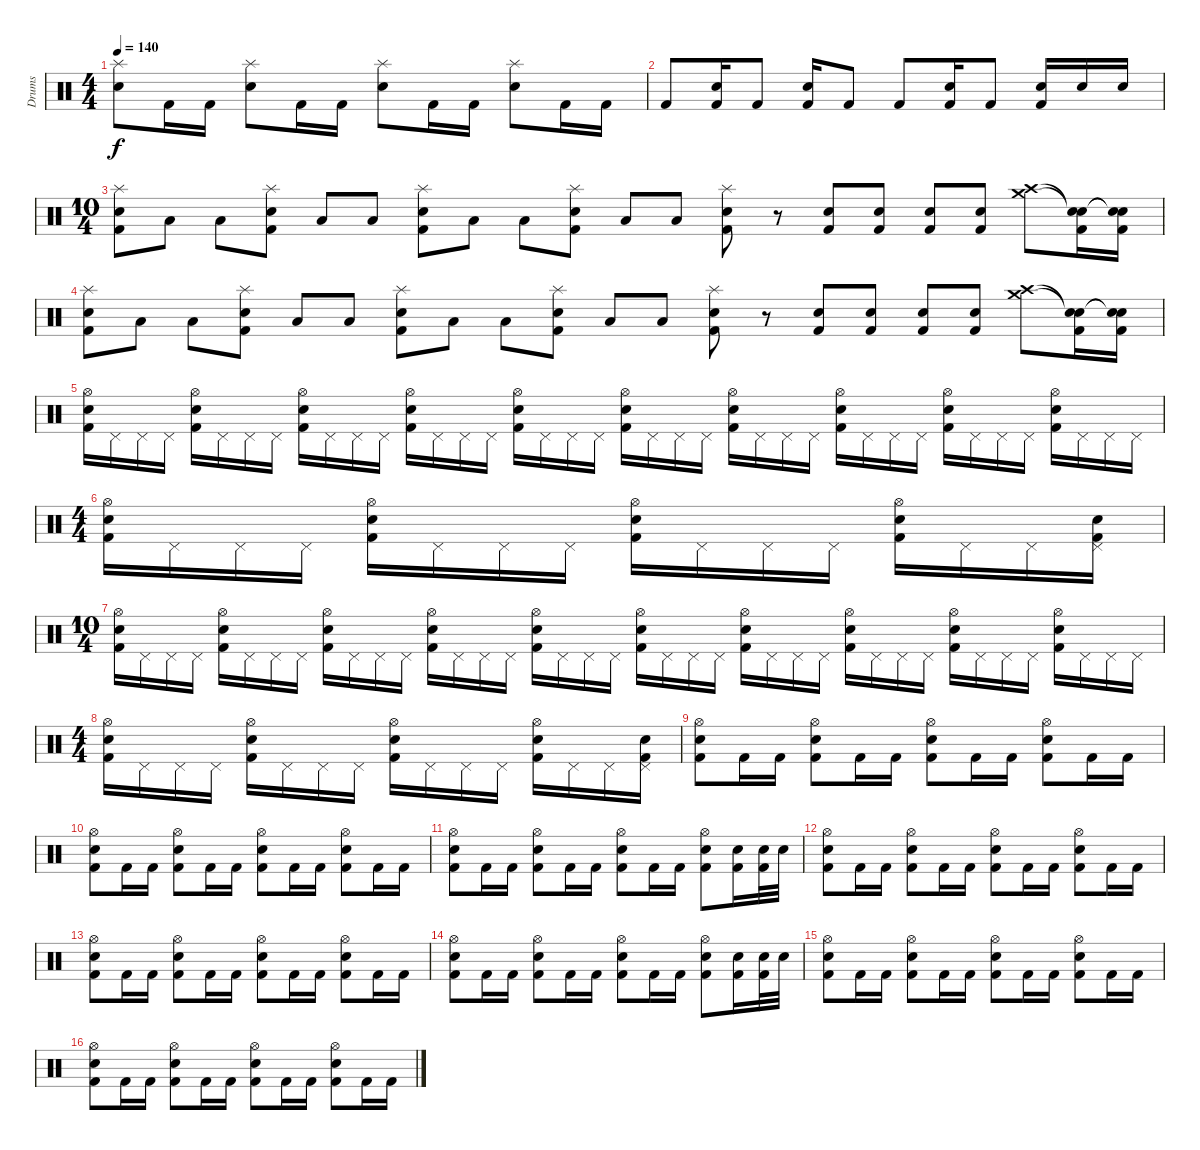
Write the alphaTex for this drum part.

\track ("Drums" "Drums") {instrument percussion}
\staff {score}
\articulation defaults
\ts (4 4)
\tempo 140
\clef neutral
\ks c
("Splash (hit)" "Snare (hit) 2").8{dy f} "Kick (hit) 2".16 "Kick (hit) 2".16 ("Splash (hit)" "Snare (hit) 2").8 "Kick (hit) 2".16 "Kick (hit) 2".16 ("Splash (hit)" "Snare (hit) 2").8 "Kick (hit) 2".16 "Kick (hit) 2".16 ("Splash (hit)" "Snare (hit) 2").8 "Kick (hit) 2".16 "Kick (hit) 2".16 |
"Kick (hit) 2".8 ("Snare (hit) 2" "Kick (hit) 2").16 "Kick (hit) 2".8 ("Snare (hit) 2" "Kick (hit) 2").16 "Kick (hit) 2".8 "Kick (hit) 2".8 ("Snare (hit) 2" "Kick (hit) 2").16 "Kick (hit) 2".8 ("Snare (hit) 2" "Kick (hit) 2").16 "Snare (hit) 2".16 "Snare (hit) 2".16 |
\ts (10 4)
("Splash (hit)" "Snare (hit) 2" "Kick (hit) 2").8 "Low Floor Tom (hit)".8 "Low Tom (hit)".8 ("Splash (hit)" "Snare (hit) 2" "Kick (hit) 2").8 "Low Floor Tom (hit)".8 "Low Tom (hit)".8 ("Splash (hit)" "Snare (hit) 2" "Kick (hit) 2").8 "Low Floor Tom (hit)".8 "Low Tom (hit)".8 ("Splash (hit)" "Snare (hit) 2" "Kick (hit) 2").8 "Low Floor Tom (hit)".8 "Low Tom (hit)".8 ("Splash (hit)" "Snare (hit) 2" "Kick (hit) 2").8 r.8 ("Snare (hit) 2" "Kick (hit) 2").8 ("Snare (hit) 2" "Kick (hit) 2").8 ("Snare (hit) 2" "Kick (hit) 2").8 ("Snare (hit) 2" "Kick (hit) 2").8 ("Crash medium (hit)" "Crash high (hit)").8 ("Snare (hit)"{t} "Snare (hit)"{t} "Kick (hit) 2").16 ("Snare (hit)"{t} "Snare (hit)"{t} "Kick (hit) 2").16 |
("Splash (hit)" "Snare (hit) 2" "Kick (hit) 2").8 "Low Floor Tom (hit)".8 "Low Tom (hit)".8 ("Splash (hit)" "Snare (hit) 2" "Kick (hit) 2").8 "Low Floor Tom (hit)".8 "Low Tom (hit)".8 ("Splash (hit)" "Snare (hit) 2" "Kick (hit) 2").8 "Low Floor Tom (hit)".8 "Low Tom (hit)".8 ("Splash (hit)" "Snare (hit) 2" "Kick (hit) 2").8 "Low Floor Tom (hit)".8 "Low Tom (hit)".8 ("Splash (hit)" "Snare (hit) 2" "Kick (hit) 2").8 r.8 ("Snare (hit) 2" "Kick (hit) 2").8 ("Snare (hit) 2" "Kick (hit) 2").8 ("Snare (hit) 2" "Kick (hit) 2").8 ("Snare (hit) 2" "Kick (hit) 2").8 ("Crash medium (hit)" "Crash high (hit)").8 ("Snare (hit)"{t} "Snare (hit)"{t} "Kick (hit) 2").16 ("Snare (hit)"{t} "Snare (hit)"{t} "Kick (hit) 2").16 |
("Hi-Hat (open)" "Snare (hit) 2" "Kick (hit) 2").16 "Pedal Hi-Hat (hit)".16 "Pedal Hi-Hat (hit)".16 "Pedal Hi-Hat (hit)".16 ("Hi-Hat (open)" "Snare (hit) 2" "Kick (hit) 2").16 "Pedal Hi-Hat (hit)".16 "Pedal Hi-Hat (hit)".16 "Pedal Hi-Hat (hit)".16 ("Hi-Hat (open)" "Snare (hit) 2" "Kick (hit) 2").16 "Pedal Hi-Hat (hit)".16 "Pedal Hi-Hat (hit)".16 "Pedal Hi-Hat (hit)".16 ("Hi-Hat (open)" "Snare (hit) 2" "Kick (hit) 2").16 "Pedal Hi-Hat (hit)".16 "Pedal Hi-Hat (hit)".16 "Pedal Hi-Hat (hit)".16 ("Hi-Hat (open)" "Snare (hit) 2" "Kick (hit) 2").16 "Pedal Hi-Hat (hit)".16 "Pedal Hi-Hat (hit)".16 "Pedal Hi-Hat (hit)".16 ("Hi-Hat (open)" "Snare (hit) 2" "Kick (hit) 2").16 "Pedal Hi-Hat (hit)".16 "Pedal Hi-Hat (hit)".16 "Pedal Hi-Hat (hit)".16 ("Hi-Hat (open)" "Snare (hit) 2" "Kick (hit) 2").16 "Pedal Hi-Hat (hit)".16 "Pedal Hi-Hat (hit)".16 "Pedal Hi-Hat (hit)".16 ("Hi-Hat (open)" "Snare (hit) 2" "Kick (hit) 2").16 "Pedal Hi-Hat (hit)".16 "Pedal Hi-Hat (hit)".16 "Pedal Hi-Hat (hit)".16 ("Hi-Hat (open)" "Snare (hit) 2" "Kick (hit) 2").16 "Pedal Hi-Hat (hit)".16 "Pedal Hi-Hat (hit)".16 "Pedal Hi-Hat (hit)".16 ("Hi-Hat (open)" "Snare (hit) 2" "Kick (hit) 2").16 "Pedal Hi-Hat (hit)".16 "Pedal Hi-Hat (hit)".16 "Pedal Hi-Hat (hit)".16 |
\ts (4 4)
("Hi-Hat (open)" "Snare (hit) 2" "Kick (hit) 2").16 "Pedal Hi-Hat (hit)".16 "Pedal Hi-Hat (hit)".16 "Pedal Hi-Hat (hit)".16 ("Hi-Hat (open)" "Snare (hit) 2" "Kick (hit) 2").16 "Pedal Hi-Hat (hit)".16 "Pedal Hi-Hat (hit)".16 "Pedal Hi-Hat (hit)".16 ("Hi-Hat (open)" "Snare (hit) 2" "Kick (hit) 2").16 "Pedal Hi-Hat (hit)".16 "Pedal Hi-Hat (hit)".16 "Pedal Hi-Hat (hit)".16 ("Hi-Hat (open)" "Snare (hit) 2" "Kick (hit) 2").16 "Pedal Hi-Hat (hit)".16 "Pedal Hi-Hat (hit)".16 ("Pedal Hi-Hat (hit)" "Snare (hit) 2" "Kick (hit) 2").16 |
\ts (10 4)
("Hi-Hat (open)" "Snare (hit) 2" "Kick (hit) 2").16 "Pedal Hi-Hat (hit)".16 "Pedal Hi-Hat (hit)".16 "Pedal Hi-Hat (hit)".16 ("Hi-Hat (open)" "Snare (hit) 2" "Kick (hit) 2").16 "Pedal Hi-Hat (hit)".16 "Pedal Hi-Hat (hit)".16 "Pedal Hi-Hat (hit)".16 ("Hi-Hat (open)" "Snare (hit) 2" "Kick (hit) 2").16 "Pedal Hi-Hat (hit)".16 "Pedal Hi-Hat (hit)".16 "Pedal Hi-Hat (hit)".16 ("Hi-Hat (open)" "Snare (hit) 2" "Kick (hit) 2").16 "Pedal Hi-Hat (hit)".16 "Pedal Hi-Hat (hit)".16 "Pedal Hi-Hat (hit)".16 ("Hi-Hat (open)" "Snare (hit) 2" "Kick (hit) 2").16 "Pedal Hi-Hat (hit)".16 "Pedal Hi-Hat (hit)".16 "Pedal Hi-Hat (hit)".16 ("Hi-Hat (open)" "Snare (hit) 2" "Kick (hit) 2").16 "Pedal Hi-Hat (hit)".16 "Pedal Hi-Hat (hit)".16 "Pedal Hi-Hat (hit)".16 ("Hi-Hat (open)" "Snare (hit) 2" "Kick (hit) 2").16 "Pedal Hi-Hat (hit)".16 "Pedal Hi-Hat (hit)".16 "Pedal Hi-Hat (hit)".16 ("Hi-Hat (open)" "Snare (hit) 2" "Kick (hit) 2").16 "Pedal Hi-Hat (hit)".16 "Pedal Hi-Hat (hit)".16 "Pedal Hi-Hat (hit)".16 ("Hi-Hat (open)" "Snare (hit) 2" "Kick (hit) 2").16 "Pedal Hi-Hat (hit)".16 "Pedal Hi-Hat (hit)".16 "Pedal Hi-Hat (hit)".16 ("Hi-Hat (open)" "Snare (hit) 2" "Kick (hit) 2").16 "Pedal Hi-Hat (hit)".16 "Pedal Hi-Hat (hit)".16 "Pedal Hi-Hat (hit)".16 |
\ts (4 4)
("Hi-Hat (open)" "Snare (hit) 2" "Kick (hit) 2").16 "Pedal Hi-Hat (hit)".16 "Pedal Hi-Hat (hit)".16 "Pedal Hi-Hat (hit)".16 ("Hi-Hat (open)" "Snare (hit) 2" "Kick (hit) 2").16 "Pedal Hi-Hat (hit)".16 "Pedal Hi-Hat (hit)".16 "Pedal Hi-Hat (hit)".16 ("Hi-Hat (open)" "Snare (hit) 2" "Kick (hit) 2").16 "Pedal Hi-Hat (hit)".16 "Pedal Hi-Hat (hit)".16 "Pedal Hi-Hat (hit)".16 ("Hi-Hat (open)" "Snare (hit) 2" "Kick (hit) 2").16 "Pedal Hi-Hat (hit)".16 "Pedal Hi-Hat (hit)".16 ("Pedal Hi-Hat (hit)" "Snare (hit) 2" "Kick (hit) 2").16 |
("Hi-Hat (open)" "Snare (hit) 2" "Kick (hit) 2").8 "Kick (hit) 2".16 "Kick (hit) 2".16 ("Hi-Hat (open)" "Snare (hit) 2" "Kick (hit) 2").8 "Kick (hit) 2".16 "Kick (hit) 2".16 ("Hi-Hat (open)" "Snare (hit) 2" "Kick (hit) 2").8 "Kick (hit) 2".16 "Kick (hit) 2".16 ("Hi-Hat (open)" "Snare (hit) 2" "Kick (hit) 2").8 "Kick (hit) 2".16 "Kick (hit) 2".16 |
("Hi-Hat (open)" "Snare (hit) 2" "Kick (hit) 2").8 "Kick (hit) 2".16 "Kick (hit) 2".16 ("Hi-Hat (open)" "Snare (hit) 2" "Kick (hit) 2").8 "Kick (hit) 2".16 "Kick (hit) 2".16 ("Hi-Hat (open)" "Snare (hit) 2" "Kick (hit) 2").8 "Kick (hit) 2".16 "Kick (hit) 2".16 ("Hi-Hat (open)" "Snare (hit) 2" "Kick (hit) 2").8 "Kick (hit) 2".16 "Kick (hit) 2".16 |
("Hi-Hat (open)" "Snare (hit) 2" "Kick (hit) 2").8 "Kick (hit) 2".16 "Kick (hit) 2".16 ("Hi-Hat (open)" "Snare (hit) 2" "Kick (hit) 2").8 "Kick (hit) 2".16 "Kick (hit) 2".16 ("Hi-Hat (open)" "Snare (hit) 2" "Kick (hit) 2").8 "Kick (hit) 2".16 "Kick (hit) 2".16 ("Hi-Hat (open)" "Snare (hit) 2" "Kick (hit) 2").8 ("Snare (hit) 2" "Kick (hit) 2").16 ("Snare (hit) 2" "Kick (hit) 2").32 "Snare (hit) 2".32 |
("Hi-Hat (open)" "Snare (hit) 2" "Kick (hit) 2").8 "Kick (hit) 2".16 "Kick (hit) 2".16 ("Hi-Hat (open)" "Snare (hit) 2" "Kick (hit) 2").8 "Kick (hit) 2".16 "Kick (hit) 2".16 ("Hi-Hat (open)" "Snare (hit) 2" "Kick (hit) 2").8 "Kick (hit) 2".16 "Kick (hit) 2".16 ("Hi-Hat (open)" "Snare (hit) 2" "Kick (hit) 2").8 "Kick (hit) 2".16 "Kick (hit) 2".16 |
("Hi-Hat (open)" "Snare (hit) 2" "Kick (hit) 2").8 "Kick (hit) 2".16 "Kick (hit) 2".16 ("Hi-Hat (open)" "Snare (hit) 2" "Kick (hit) 2").8 "Kick (hit) 2".16 "Kick (hit) 2".16 ("Hi-Hat (open)" "Snare (hit) 2" "Kick (hit) 2").8 "Kick (hit) 2".16 "Kick (hit) 2".16 ("Hi-Hat (open)" "Snare (hit) 2" "Kick (hit) 2").8 "Kick (hit) 2".16 "Kick (hit) 2".16 |
("Hi-Hat (open)" "Snare (hit) 2" "Kick (hit) 2").8 "Kick (hit) 2".16 "Kick (hit) 2".16 ("Hi-Hat (open)" "Snare (hit) 2" "Kick (hit) 2").8 "Kick (hit) 2".16 "Kick (hit) 2".16 ("Hi-Hat (open)" "Snare (hit) 2" "Kick (hit) 2").8 "Kick (hit) 2".16 "Kick (hit) 2".16 ("Hi-Hat (open)" "Snare (hit) 2" "Kick (hit) 2").8 ("Snare (hit) 2" "Kick (hit) 2").16 ("Snare (hit) 2" "Kick (hit) 2").32 "Snare (hit) 2".32 |
("Hi-Hat (open)" "Snare (hit) 2" "Kick (hit) 2").8 "Kick (hit) 2".16 "Kick (hit) 2".16 ("Hi-Hat (open)" "Snare (hit) 2" "Kick (hit) 2").8 "Kick (hit) 2".16 "Kick (hit) 2".16 ("Hi-Hat (open)" "Snare (hit) 2" "Kick (hit) 2").8 "Kick (hit) 2".16 "Kick (hit) 2".16 ("Hi-Hat (open)" "Snare (hit) 2" "Kick (hit) 2").8 "Kick (hit) 2".16 "Kick (hit) 2".16 |
("Hi-Hat (open)" "Snare (hit) 2" "Kick (hit) 2").8 "Kick (hit) 2".16 "Kick (hit) 2".16 ("Hi-Hat (open)" "Snare (hit) 2" "Kick (hit) 2").8 "Kick (hit) 2".16 "Kick (hit) 2".16 ("Hi-Hat (open)" "Snare (hit) 2" "Kick (hit) 2").8 "Kick (hit) 2".16 "Kick (hit) 2".16 ("Hi-Hat (open)" "Snare (hit) 2" "Kick (hit) 2").8 "Kick (hit) 2".16 "Kick (hit) 2".16
